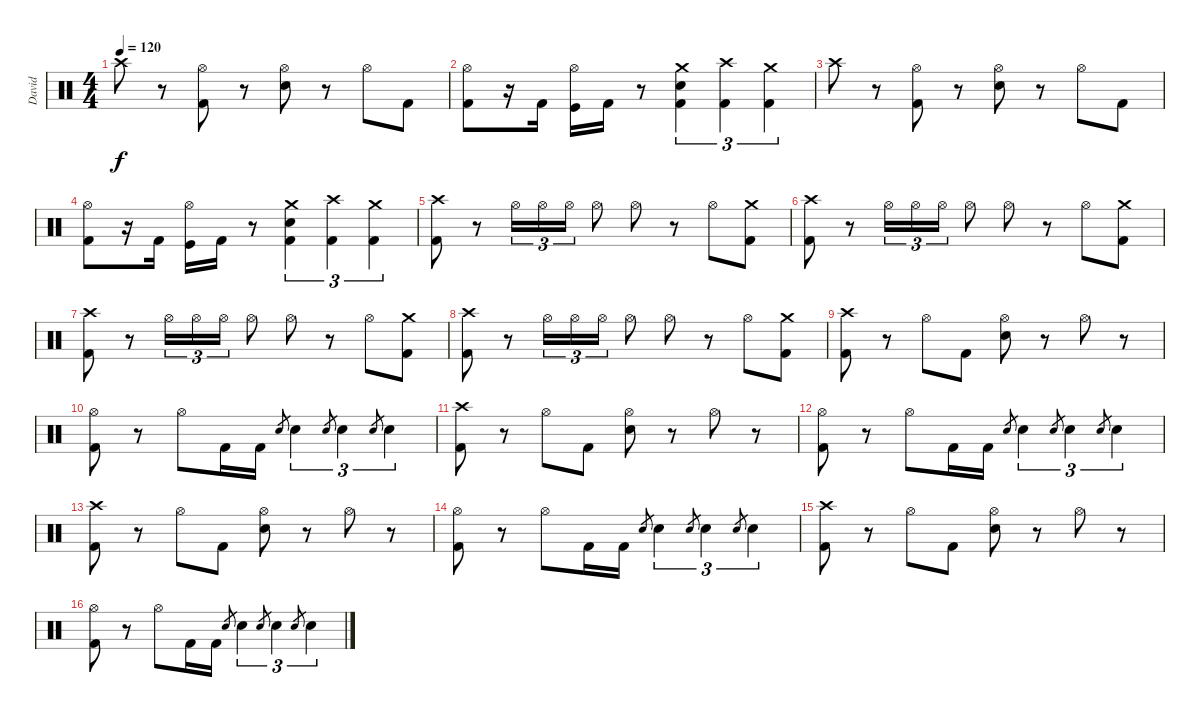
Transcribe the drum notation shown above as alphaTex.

\track ("David" "David") {instrument percussion}
\staff {score}
\articulation defaults
\ts (4 4)
\tempo 120
\clef neutral
\ks c "Crash high (hit)".8{dy f}
r.8 ("Hi-Hat (open)" "Kick (hit) 2").8 r.8 ("Hi-Hat (open)" "Snare (hit) 2").8 r.8 "Hi-Hat (open)".8 "Kick (hit) 2".8 |
("Hi-Hat (open)" "Kick (hit) 2").8 r.16 "Kick (hit) 2".16 ("Hi-Hat (open)" "Kick (hit)").16 "Kick (hit) 2".16 r.8 ("Crash medium (hit)" "Snare (hit) 2" "Kick (hit) 2").4{tu (3 2)} ("Crash high (hit)" "Kick (hit) 2").4{tu (3 2)} ("Crash medium (hit)" "Kick (hit) 2").4{tu (3 2)} |
"Crash high (hit)".8 r.8 ("Hi-Hat (open)" "Kick (hit) 2").8 r.8 ("Hi-Hat (open)" "Snare (hit) 2").8 r.8 "Hi-Hat (open)".8 "Kick (hit) 2".8 |
("Hi-Hat (open)" "Kick (hit) 2").8 r.16 "Kick (hit) 2".16 ("Hi-Hat (open)" "Kick (hit)").16 "Kick (hit) 2".16 r.8 ("Crash medium (hit)" "Snare (hit) 2" "Kick (hit) 2").4{tu (3 2)} ("Crash high (hit)" "Kick (hit) 2").4{tu (3 2)} ("Crash medium (hit)" "Kick (hit) 2").4{tu (3 2)} |
("Crash high (hit)" "Kick (hit) 2").8 r.8 "Hi-Hat (open)".16{tu (3 2)} "Hi-Hat (open)".16{tu (3 2)} "Hi-Hat (open)".16{tu (3 2)} "Hi-Hat (open)".8 "Hi-Hat (open)".8 r.8 "Hi-Hat (open)".8 ("Crash medium (hit)" "Kick (hit) 2").8 |
("Crash high (hit)" "Kick (hit) 2").8 r.8 "Hi-Hat (open)".16{tu (3 2)} "Hi-Hat (open)".16{tu (3 2)} "Hi-Hat (open)".16{tu (3 2)} "Hi-Hat (open)".8 "Hi-Hat (open)".8 r.8 "Hi-Hat (open)".8 ("Crash medium (hit)" "Kick (hit) 2").8 |
("Crash high (hit)" "Kick (hit) 2").8 r.8 "Hi-Hat (open)".16{tu (3 2)} "Hi-Hat (open)".16{tu (3 2)} "Hi-Hat (open)".16{tu (3 2)} "Hi-Hat (open)".8 "Hi-Hat (open)".8 r.8 "Hi-Hat (open)".8 ("Crash medium (hit)" "Kick (hit) 2").8 |
("Crash high (hit)" "Kick (hit) 2").8 r.8 "Hi-Hat (open)".16{tu (3 2)} "Hi-Hat (open)".16{tu (3 2)} "Hi-Hat (open)".16{tu (3 2)} "Hi-Hat (open)".8 "Hi-Hat (open)".8 r.8 "Hi-Hat (open)".8 ("Crash medium (hit)" "Kick (hit) 2").8 |
("Crash high (hit)" "Kick (hit) 2").8 r.8 "Hi-Hat (open)".8 "Kick (hit) 2".8 ("Hi-Hat (open)" "Snare (hit) 2").8 r.8 "Hi-Hat (open)".8 r.8 |
("Hi-Hat (open)" "Kick (hit) 2").8 r.8 "Hi-Hat (open)".8 "Kick (hit) 2".16 "Kick (hit) 2".16 "Snare (hit) 2".8{gr} "Snare (hit) 2".4{tu (3 2)} "Snare (hit) 2".8{gr} "Snare (hit) 2".4{tu (3 2)} "Snare (hit) 2".8{gr} "Snare (hit) 2".4{tu (3 2)} |
("Crash high (hit)" "Kick (hit) 2").8 r.8 "Hi-Hat (open)".8 "Kick (hit) 2".8 ("Hi-Hat (open)" "Snare (hit) 2").8 r.8 "Hi-Hat (open)".8 r.8 |
("Hi-Hat (open)" "Kick (hit) 2").8 r.8 "Hi-Hat (open)".8 "Kick (hit) 2".16 "Kick (hit) 2".16 "Snare (hit) 2".8{gr} "Snare (hit) 2".4{tu (3 2)} "Snare (hit) 2".8{gr} "Snare (hit) 2".4{tu (3 2)} "Snare (hit) 2".8{gr} "Snare (hit) 2".4{tu (3 2)} |
("Crash high (hit)" "Kick (hit) 2").8 r.8 "Hi-Hat (open)".8 "Kick (hit) 2".8 ("Hi-Hat (open)" "Snare (hit) 2").8 r.8 "Hi-Hat (open)".8 r.8 |
("Hi-Hat (open)" "Kick (hit) 2").8 r.8 "Hi-Hat (open)".8 "Kick (hit) 2".16 "Kick (hit) 2".16 "Snare (hit) 2".8{gr} "Snare (hit) 2".4{tu (3 2)} "Snare (hit) 2".8{gr} "Snare (hit) 2".4{tu (3 2)} "Snare (hit) 2".8{gr} "Snare (hit) 2".4{tu (3 2)} |
("Crash high (hit)" "Kick (hit) 2").8 r.8 "Hi-Hat (open)".8 "Kick (hit) 2".8 ("Hi-Hat (open)" "Snare (hit) 2").8 r.8 "Hi-Hat (open)".8 r.8 |
("Hi-Hat (open)" "Kick (hit) 2").8 r.8 "Hi-Hat (open)".8 "Kick (hit) 2".16 "Kick (hit) 2".16 "Snare (hit) 2".8{gr} "Snare (hit) 2".4{tu (3 2)} "Snare (hit) 2".8{gr} "Snare (hit) 2".4{tu (3 2)} "Snare (hit) 2".8{gr} "Snare (hit) 2".4{tu (3 2)}
